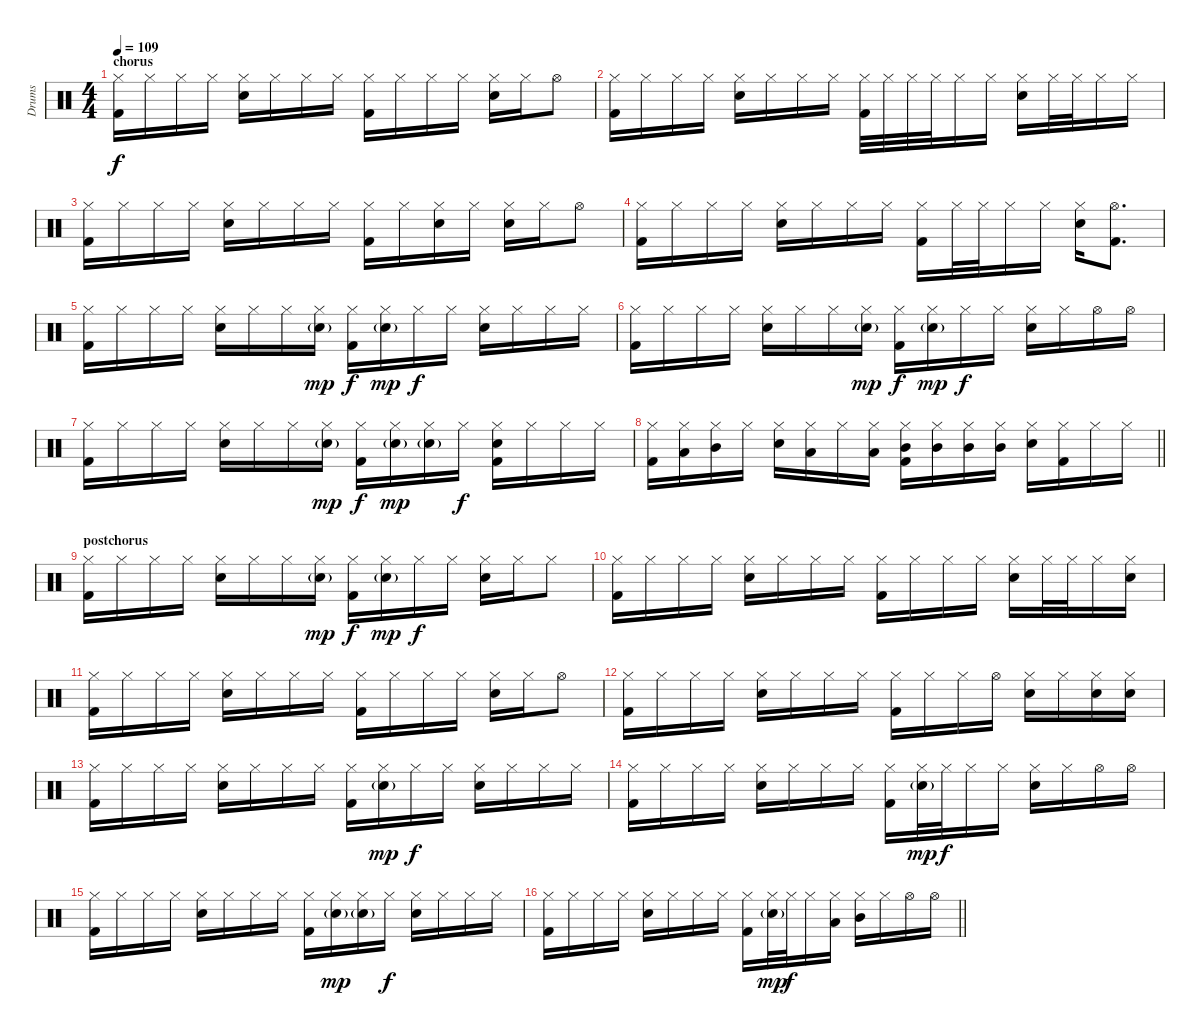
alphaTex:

\track ("Drums" "Drums") {instrument percussion}
\staff {score}
\articulation defaults
\ts (4 4)
\section ("" "chorus")
\tempo 109
\clef neutral
\ks c
("Hi-Hat (closed)" "Kick (hit) 2").16{dy f} "Hi-Hat (closed)".16 "Hi-Hat (closed)".16 "Hi-Hat (closed)".16 ("Hi-Hat (closed)" "Electric Snare (hit)").16 "Hi-Hat (closed)".16 "Hi-Hat (closed)".16 "Hi-Hat (closed)".16 ("Hi-Hat (closed)" "Kick (hit) 2").16 "Hi-Hat (closed)".16 "Hi-Hat (closed)".16 "Hi-Hat (closed)".16 ("Hi-Hat (closed)" "Electric Snare (hit)").16 "Hi-Hat (closed)".16 "Hi-Hat (open)".8 |
("Hi-Hat (closed)" "Kick (hit) 2").16 "Hi-Hat (closed)".16 "Hi-Hat (closed)".16 "Hi-Hat (closed)".16 ("Hi-Hat (closed)" "Electric Snare (hit)").16 "Hi-Hat (closed)".16 "Hi-Hat (closed)".16 "Hi-Hat (closed)".16 ("Hi-Hat (closed)" "Kick (hit) 2").32 "Hi-Hat (closed)".32 "Hi-Hat (closed)".32 "Hi-Hat (closed)".32 "Hi-Hat (closed)".16 "Hi-Hat (closed)".16 ("Hi-Hat (closed)" "Electric Snare (hit)").16 "Hi-Hat (closed)".32 "Hi-Hat (closed)".32 "Hi-Hat (closed)".16 "Hi-Hat (closed)".16 |
("Hi-Hat (closed)" "Kick (hit) 2").16 "Hi-Hat (closed)".16 "Hi-Hat (closed)".16 "Hi-Hat (closed)".16 ("Hi-Hat (closed)" "Electric Snare (hit)").16 "Hi-Hat (closed)".16 "Hi-Hat (closed)".16 "Hi-Hat (closed)".16 ("Hi-Hat (closed)" "Kick (hit) 2").16 "Hi-Hat (closed)".16 ("Hi-Hat (closed)" "Electric Snare (hit)").16 "Hi-Hat (closed)".16 ("Hi-Hat (closed)" "Electric Snare (hit)").16 "Hi-Hat (closed)".16 "Hi-Hat (open)".8 |
("Hi-Hat (closed)" "Kick (hit) 2").16 "Hi-Hat (closed)".16 "Hi-Hat (closed)".16 "Hi-Hat (closed)".16 ("Hi-Hat (closed)" "Electric Snare (hit)").16 "Hi-Hat (closed)".16 "Hi-Hat (closed)".16 "Hi-Hat (closed)".16 ("Hi-Hat (closed)" "Kick (hit) 2").16 "Hi-Hat (closed)".32 "Hi-Hat (closed)".32 "Hi-Hat (closed)".16 "Hi-Hat (closed)".16 ("Hi-Hat (closed)" "Electric Snare (hit)").16 ("Hi-Hat (open)" "Kick (hit) 2").8{d} |
("Hi-Hat (closed)" "Kick (hit) 2").16 "Hi-Hat (closed)".16 "Hi-Hat (closed)".16 "Hi-Hat (closed)".16 ("Hi-Hat (closed)" "Electric Snare (hit)").16 "Hi-Hat (closed)".16 "Hi-Hat (closed)".16 ("Hi-Hat (closed)" "Electric Snare (hit)"{g}).16{dy mp} ("Hi-Hat (closed)" "Kick (hit) 2").16{dy f} ("Hi-Hat (closed)" "Electric Snare (hit)"{g}).16{dy mp} "Hi-Hat (closed)".16{dy f} "Hi-Hat (closed)".16 ("Hi-Hat (closed)" "Electric Snare (hit)").16 "Hi-Hat (closed)".16 "Hi-Hat (closed)".16 "Hi-Hat (closed)".16 |
("Hi-Hat (closed)" "Kick (hit) 2").16 "Hi-Hat (closed)".16 "Hi-Hat (closed)".16 "Hi-Hat (closed)".16 ("Hi-Hat (closed)" "Electric Snare (hit)").16 "Hi-Hat (closed)".16 "Hi-Hat (closed)".16 ("Hi-Hat (closed)" "Electric Snare (hit)"{g}).16{dy mp} ("Hi-Hat (closed)" "Kick (hit) 2").16{dy f} ("Hi-Hat (closed)" "Electric Snare (hit)"{g}).16{dy mp} "Hi-Hat (closed)".16{dy f} "Hi-Hat (closed)".16 ("Hi-Hat (closed)" "Electric Snare (hit)").16 "Hi-Hat (closed)".16 "Hi-Hat (open)".16 "Hi-Hat (open)".16 |
("Hi-Hat (closed)" "Kick (hit) 2").16 "Hi-Hat (closed)".16 "Hi-Hat (closed)".16 "Hi-Hat (closed)".16 ("Hi-Hat (closed)" "Electric Snare (hit)").16 "Hi-Hat (closed)".16 "Hi-Hat (closed)".16 ("Hi-Hat (closed)" "Electric Snare (hit)"{g}).16{dy mp} ("Hi-Hat (closed)" "Kick (hit) 2").16{dy f} ("Hi-Hat (closed)" "Electric Snare (hit)"{g}).16{dy mp} ("Hi-Hat (closed)" "Electric Snare (hit)"{g}).16 "Hi-Hat (closed)".16{dy f} ("Hi-Hat (closed)" "Electric Snare (hit)" "Kick (hit) 2").16 "Hi-Hat (closed)".16 "Hi-Hat (closed)".16 "Hi-Hat (closed)".16 |
\barLineRight lightlight
("Hi-Hat (closed)" "Kick (hit) 2").16 ("Hi-Hat (closed)" "Low Tom (hit)").16 ("Hi-Hat (closed)" "Mid Tom (hit)").16 "Hi-Hat (closed)".16 ("Hi-Hat (closed)" "Electric Snare (hit)").16 ("Hi-Hat (closed)" "Low Tom (hit)").16 "Hi-Hat (closed)".16 ("Hi-Hat (closed)" "Low Tom (hit)").16 ("Hi-Hat (closed)" "Mid Tom (hit)" "Kick (hit) 2").16 ("Hi-Hat (closed)" "Mid Tom (hit)").16 ("Hi-Hat (closed)" "Mid Tom (hit)").16 ("Hi-Hat (closed)" "Mid Tom (hit)").16 ("Hi-Hat (closed)" "Electric Snare (hit)").16 ("Hi-Hat (closed)" "Kick (hit) 2").16 "Hi-Hat (closed)".16 "Hi-Hat (closed)".16 |
\section ("" "postchorus")
("Hi-Hat (closed)" "Kick (hit) 2").16 "Hi-Hat (closed)".16 "Hi-Hat (closed)".16 "Hi-Hat (closed)".16 ("Hi-Hat (closed)" "Electric Snare (hit)").16 "Hi-Hat (closed)".16 "Hi-Hat (closed)".16 ("Hi-Hat (closed)" "Electric Snare (hit)"{g}).16{dy mp} ("Hi-Hat (closed)" "Kick (hit) 2").16{dy f} ("Hi-Hat (closed)" "Electric Snare (hit)"{g}).16{dy mp} "Hi-Hat (closed)".16{dy f} "Hi-Hat (closed)".16 ("Hi-Hat (closed)" "Electric Snare (hit)").16 "Hi-Hat (closed)".16 "Hi-Hat (closed)".8 |
("Hi-Hat (closed)" "Kick (hit) 2").16 "Hi-Hat (closed)".16 "Hi-Hat (closed)".16 "Hi-Hat (closed)".16 ("Hi-Hat (closed)" "Electric Snare (hit)").16 "Hi-Hat (closed)".16 "Hi-Hat (closed)".16 "Hi-Hat (closed)".16 ("Hi-Hat (closed)" "Kick (hit) 2").16 "Hi-Hat (closed)".16 "Hi-Hat (closed)".16 "Hi-Hat (closed)".16 ("Hi-Hat (closed)" "Electric Snare (hit)").16 "Hi-Hat (closed)".32 "Hi-Hat (closed)".32 "Hi-Hat (closed)".16 ("Hi-Hat (closed)" "Electric Snare (hit)").16 |
("Hi-Hat (closed)" "Kick (hit) 2").16 "Hi-Hat (closed)".16 "Hi-Hat (closed)".16 "Hi-Hat (closed)".16 ("Hi-Hat (closed)" "Electric Snare (hit)").16 "Hi-Hat (closed)".16 "Hi-Hat (closed)".16 "Hi-Hat (closed)".16 ("Hi-Hat (closed)" "Kick (hit) 2").16 "Hi-Hat (closed)".16 "Hi-Hat (closed)".16 "Hi-Hat (closed)".16 ("Hi-Hat (closed)" "Electric Snare (hit)").16 "Hi-Hat (closed)".16 "Hi-Hat (open)".8 |
("Hi-Hat (closed)" "Kick (hit) 2").16 "Hi-Hat (closed)".16 "Hi-Hat (closed)".16 "Hi-Hat (closed)".16 ("Hi-Hat (closed)" "Electric Snare (hit)").16 "Hi-Hat (closed)".16 "Hi-Hat (closed)".16 "Hi-Hat (closed)".16 ("Hi-Hat (closed)" "Kick (hit) 2").16 "Hi-Hat (closed)".16 "Hi-Hat (closed)".16 "Hi-Hat (open)".16 ("Hi-Hat (closed)" "Electric Snare (hit)").16 "Hi-Hat (closed)".16 ("Hi-Hat (closed)" "Electric Snare (hit)").16 ("Hi-Hat (closed)" "Electric Snare (hit)").16 |
("Hi-Hat (closed)" "Kick (hit) 2").16 "Hi-Hat (closed)".16 "Hi-Hat (closed)".16 "Hi-Hat (closed)".16 ("Hi-Hat (closed)" "Electric Snare (hit)").16 "Hi-Hat (closed)".16 "Hi-Hat (closed)".16 "Hi-Hat (closed)".16 ("Hi-Hat (closed)" "Kick (hit) 2").16 ("Hi-Hat (closed)" "Electric Snare (hit)"{g}).16{dy mp} "Hi-Hat (closed)".16{dy f} "Hi-Hat (closed)".16 ("Hi-Hat (closed)" "Electric Snare (hit)").16 "Hi-Hat (closed)".16 "Hi-Hat (closed)".16 "Hi-Hat (closed)".16 |
("Hi-Hat (closed)" "Kick (hit) 2").16 "Hi-Hat (closed)".16 "Hi-Hat (closed)".16 "Hi-Hat (closed)".16 ("Hi-Hat (closed)" "Electric Snare (hit)").16 "Hi-Hat (closed)".16 "Hi-Hat (closed)".16 "Hi-Hat (closed)".16 ("Hi-Hat (closed)" "Kick (hit) 2").16 ("Hi-Hat (closed)" "Electric Snare (hit)"{g}).32{dy mp} "Hi-Hat (closed)".32{dy f} "Hi-Hat (closed)".16 "Hi-Hat (closed)".16 ("Hi-Hat (closed)" "Electric Snare (hit)").16 "Hi-Hat (closed)".16 "Hi-Hat (open)".16 "Hi-Hat (open)".16 |
("Hi-Hat (closed)" "Kick (hit) 2").16 "Hi-Hat (closed)".16 "Hi-Hat (closed)".16 "Hi-Hat (closed)".16 ("Hi-Hat (closed)" "Electric Snare (hit)").16 "Hi-Hat (closed)".16 "Hi-Hat (closed)".16 "Hi-Hat (closed)".16 ("Hi-Hat (closed)" "Kick (hit) 2").16 ("Hi-Hat (closed)" "Electric Snare (hit)"{g}).16{dy mp} ("Hi-Hat (closed)" "Electric Snare (hit)"{g}).16 "Hi-Hat (closed)".16{dy f} ("Hi-Hat (closed)" "Electric Snare (hit)").16 "Hi-Hat (closed)".16 "Hi-Hat (closed)".16 "Hi-Hat (closed)".16 |
\barLineRight lightlight
("Hi-Hat (closed)" "Kick (hit) 2").16 "Hi-Hat (closed)".16 "Hi-Hat (closed)".16 "Hi-Hat (closed)".16 ("Hi-Hat (closed)" "Electric Snare (hit)").16 "Hi-Hat (closed)".16 "Hi-Hat (closed)".16 "Hi-Hat (closed)".16 ("Hi-Hat (closed)" "Kick (hit) 2").16 ("Hi-Hat (closed)" "Electric Snare (hit)"{g}).32{dy mp} "Hi-Hat (closed)".32{dy f} "Hi-Hat (closed)".16 ("Hi-Hat (closed)" "Low Tom (hit)").16 ("Hi-Hat (closed)" "Mid Tom (hit)").16 "Hi-Hat (closed)".16 "Hi-Hat (open)".16 "Hi-Hat (open)".16
